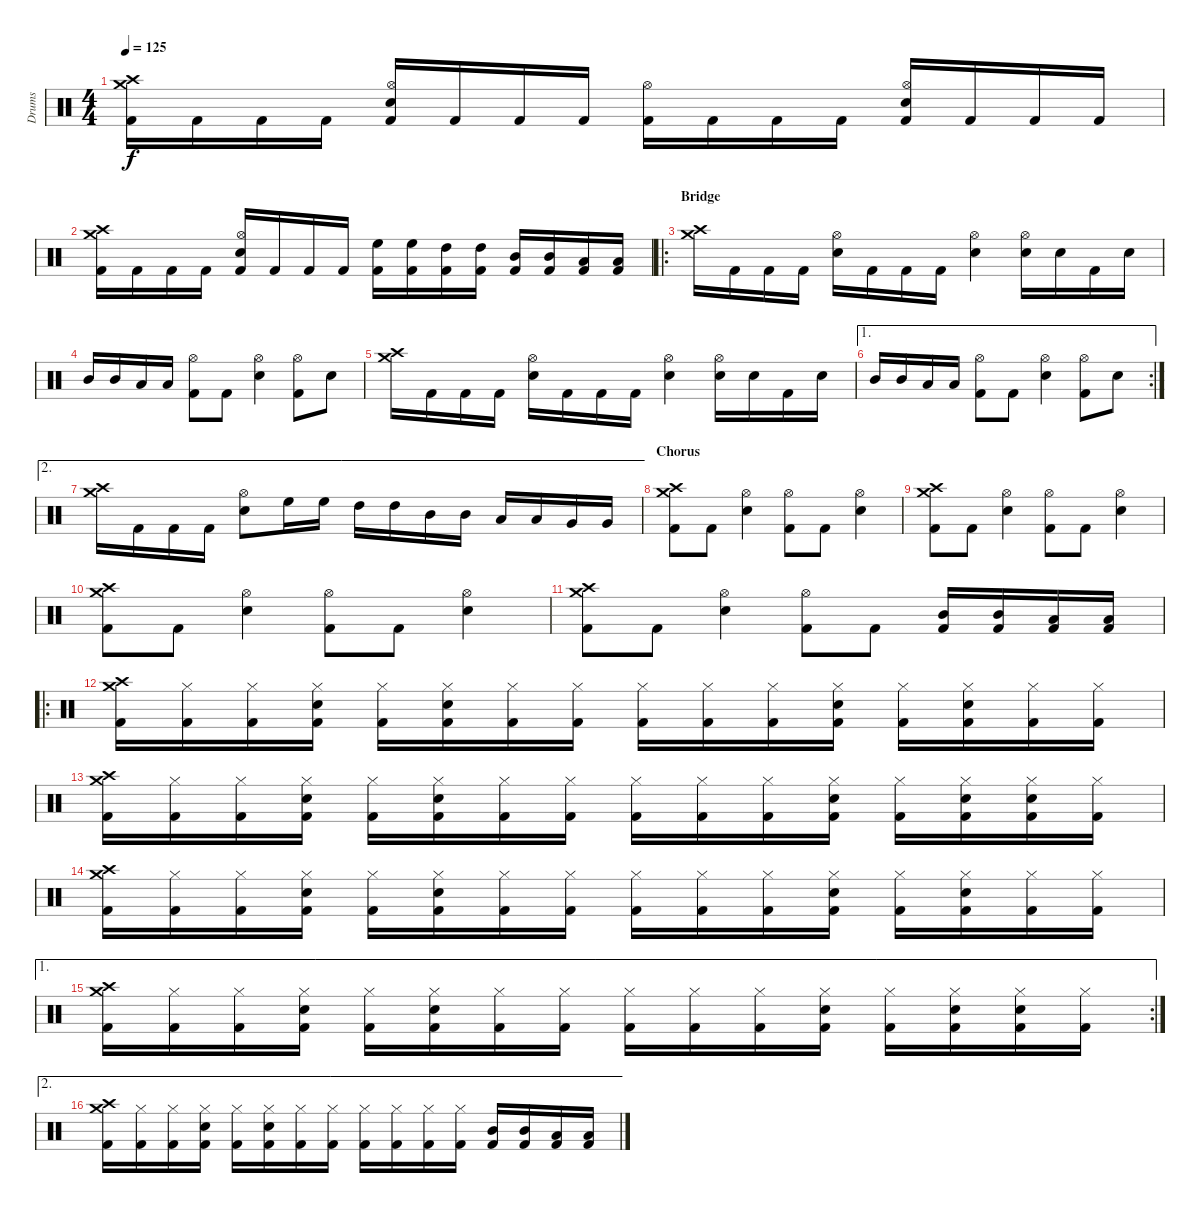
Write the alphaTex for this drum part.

\track ("Drums" "Drums") {instrument percussion}
\staff {score}
\articulation defaults
\ts (4 4)
\tempo 125
\clef neutral
\ks c
("Crash medium (hit)" "Crash high (hit)" "Kick (hit) 2").16{dy f} "Kick (hit) 2".16 "Kick (hit) 2".16 "Kick (hit) 2".16 ("Hi-Hat (open)" "Snare (hit) 2" "Kick (hit) 2").16 "Kick (hit) 2".16 "Kick (hit) 2".16 "Kick (hit) 2".16 ("Hi-Hat (open)" "Kick (hit) 2").16 "Kick (hit) 2".16 "Kick (hit) 2".16 "Kick (hit) 2".16 ("Hi-Hat (open)" "Snare (hit) 2" "Kick (hit) 2").16 "Kick (hit) 2".16 "Kick (hit) 2".16 "Kick (hit) 2".16 |
("Crash medium (hit)" "Crash high (hit)" "Kick (hit) 2").16 "Kick (hit) 2".16 "Kick (hit) 2".16 "Kick (hit) 2".16 ("Hi-Hat (open)" "Snare (hit) 2" "Kick (hit) 2").16 "Kick (hit) 2".16 "Kick (hit) 2".16 "Kick (hit) 2".16 ("High Floor Tom (hit)" "Kick (hit) 2").16 ("High Floor Tom (hit)" "Kick (hit) 2").16 ("High Tom (hit)" "Kick (hit) 2").16 ("High Tom (hit)" "Kick (hit) 2").16 ("Mid Tom (hit)" "Kick (hit) 2").16 ("Mid Tom (hit)" "Kick (hit) 2").16 ("Low Tom (hit)" "Kick (hit) 2").16 ("Low Tom (hit)" "Kick (hit) 2").16 |
\ro
\section ("" "Bridge")
("Crash medium (hit)" "Crash high (hit)").16 "Kick (hit) 2".16 "Kick (hit) 2".16 "Kick (hit) 2".16 ("Hi-Hat (open)" "Snare (hit) 2").16 "Kick (hit) 2".16 "Kick (hit) 2".16 "Kick (hit) 2".16 ("Hi-Hat (open)" "Snare (hit) 2").4 ("Hi-Hat (open)" "Snare (hit) 2").16 "Snare (hit) 2".16 "Kick (hit) 2".16 "Snare (hit) 2".16 |
"Mid Tom (hit)".16 "Mid Tom (hit)".16 "Low Tom (hit)".16 "Low Tom (hit)".16 ("Hi-Hat (open)" "Kick (hit) 2").8 "Kick (hit) 2".8 ("Hi-Hat (open)" "Snare (hit) 2").4 ("Hi-Hat (open)" "Kick (hit) 2").8 "Snare (hit) 2".8 |
("Crash medium (hit)" "Crash high (hit)").16 "Kick (hit) 2".16 "Kick (hit) 2".16 "Kick (hit) 2".16 ("Hi-Hat (open)" "Snare (hit) 2").16 "Kick (hit) 2".16 "Kick (hit) 2".16 "Kick (hit) 2".16 ("Hi-Hat (open)" "Snare (hit) 2").4 ("Hi-Hat (open)" "Snare (hit) 2").16 "Snare (hit) 2".16 "Kick (hit) 2".16 "Snare (hit) 2".16 |
\ae 1
\rc 2 "Mid Tom (hit)".16 "Mid Tom (hit)".16 "Low Tom (hit)".16 "Low Tom (hit)".16
("Hi-Hat (open)" "Kick (hit) 2").8 "Kick (hit) 2".8 ("Hi-Hat (open)" "Snare (hit) 2").4 ("Hi-Hat (open)" "Kick (hit) 2").8 "Snare (hit) 2".8 |
\ae 2
("Crash medium (hit)" "Crash high (hit)").16 "Kick (hit) 2".16 "Kick (hit) 2".16 "Kick (hit) 2".16 ("Hi-Hat (open)" "Snare (hit) 2").8 "High Floor Tom (hit)".16 "High Floor Tom (hit)".16 "High Tom (hit)".16 "High Tom (hit)".16 "Mid Tom (hit)".16 "Mid Tom (hit)".16 "Low Tom (hit)".16 "Low Tom (hit)".16 "Very Low Tom (hit)".16 "Very Low Tom (hit)".16 |
\section ("" "Chorus")
("Crash medium (hit)" "Crash high (hit)" "Kick (hit) 2").8 "Kick (hit) 2".8 ("Hi-Hat (open)" "Snare (hit) 2").4 ("Hi-Hat (open)" "Kick (hit) 2").8 "Kick (hit) 2".8 ("Hi-Hat (open)" "Snare (hit) 2").4 |
("Crash medium (hit)" "Crash high (hit)" "Kick (hit) 2").8 "Kick (hit) 2".8 ("Hi-Hat (open)" "Snare (hit) 2").4 ("Hi-Hat (open)" "Kick (hit) 2").8 "Kick (hit) 2".8 ("Hi-Hat (open)" "Snare (hit) 2").4 |
("Crash medium (hit)" "Crash high (hit)" "Kick (hit) 2").8 "Kick (hit) 2".8 ("Hi-Hat (open)" "Snare (hit) 2").4 ("Hi-Hat (open)" "Kick (hit) 2").8 "Kick (hit) 2".8 ("Hi-Hat (open)" "Snare (hit) 2").4 |
("Crash medium (hit)" "Crash high (hit)" "Kick (hit) 2").8 "Kick (hit) 2".8 ("Hi-Hat (open)" "Snare (hit) 2").4 ("Hi-Hat (open)" "Kick (hit) 2").8 "Kick (hit) 2".8 ("Mid Tom (hit)" "Kick (hit) 2").16 ("Mid Tom (hit)" "Kick (hit) 2").16 ("Low Tom (hit)" "Kick (hit) 2").16 ("Low Tom (hit)" "Kick (hit) 2").16 |
\ro
("Crash medium (hit)" "Crash high (hit)" "Kick (hit) 2").16 ("Hi-Hat (closed)" "Kick (hit) 2").16 ("Hi-Hat (closed)" "Kick (hit) 2").16 ("Hi-Hat (closed)" "Snare (hit) 2" "Kick (hit) 2").16 ("Hi-Hat (closed)" "Kick (hit) 2").16 ("Hi-Hat (closed)" "Snare (hit) 2" "Kick (hit) 2").16 ("Hi-Hat (closed)" "Kick (hit) 2").16 ("Hi-Hat (closed)" "Kick (hit) 2").16 ("Hi-Hat (closed)" "Kick (hit) 2").16 ("Hi-Hat (closed)" "Kick (hit) 2").16 ("Hi-Hat (closed)" "Kick (hit) 2").16 ("Hi-Hat (closed)" "Snare (hit) 2" "Kick (hit) 2").16 ("Hi-Hat (closed)" "Kick (hit) 2").16 ("Hi-Hat (closed)" "Snare (hit) 2" "Kick (hit) 2").16 ("Hi-Hat (closed)" "Kick (hit) 2").16 ("Hi-Hat (closed)" "Kick (hit) 2").16 |
("Crash medium (hit)" "Crash high (hit)" "Kick (hit) 2").16 ("Hi-Hat (closed)" "Kick (hit) 2").16 ("Hi-Hat (closed)" "Kick (hit) 2").16 ("Hi-Hat (closed)" "Snare (hit) 2" "Kick (hit) 2").16 ("Hi-Hat (closed)" "Kick (hit) 2").16 ("Hi-Hat (closed)" "Snare (hit) 2" "Kick (hit) 2").16 ("Hi-Hat (closed)" "Kick (hit) 2").16 ("Hi-Hat (closed)" "Kick (hit) 2").16 ("Hi-Hat (closed)" "Kick (hit) 2").16 ("Hi-Hat (closed)" "Kick (hit) 2").16 ("Hi-Hat (closed)" "Kick (hit) 2").16 ("Hi-Hat (closed)" "Snare (hit) 2" "Kick (hit) 2").16 ("Hi-Hat (closed)" "Kick (hit) 2").16 ("Hi-Hat (closed)" "Snare (hit) 2" "Kick (hit) 2").16 ("Hi-Hat (closed)" "Snare (hit) 2" "Kick (hit) 2").16 ("Hi-Hat (closed)" "Kick (hit) 2").16 |
("Crash medium (hit)" "Crash high (hit)" "Kick (hit) 2").16 ("Hi-Hat (closed)" "Kick (hit) 2").16 ("Hi-Hat (closed)" "Kick (hit) 2").16 ("Hi-Hat (closed)" "Snare (hit) 2" "Kick (hit) 2").16 ("Hi-Hat (closed)" "Kick (hit) 2").16 ("Hi-Hat (closed)" "Snare (hit) 2" "Kick (hit) 2").16 ("Hi-Hat (closed)" "Kick (hit) 2").16 ("Hi-Hat (closed)" "Kick (hit) 2").16 ("Hi-Hat (closed)" "Kick (hit) 2").16 ("Hi-Hat (closed)" "Kick (hit) 2").16 ("Hi-Hat (closed)" "Kick (hit) 2").16 ("Hi-Hat (closed)" "Snare (hit) 2" "Kick (hit) 2").16 ("Hi-Hat (closed)" "Kick (hit) 2").16 ("Hi-Hat (closed)" "Snare (hit) 2" "Kick (hit) 2").16 ("Hi-Hat (closed)" "Kick (hit) 2").16 ("Hi-Hat (closed)" "Kick (hit) 2").16 |
\ae 1
\rc 2
("Crash medium (hit)" "Crash high (hit)" "Kick (hit) 2").16 ("Hi-Hat (closed)" "Kick (hit) 2").16 ("Hi-Hat (closed)" "Kick (hit) 2").16 ("Hi-Hat (closed)" "Snare (hit) 2" "Kick (hit) 2").16 ("Hi-Hat (closed)" "Kick (hit) 2").16 ("Hi-Hat (closed)" "Snare (hit) 2" "Kick (hit) 2").16 ("Hi-Hat (closed)" "Kick (hit) 2").16 ("Hi-Hat (closed)" "Kick (hit) 2").16 ("Hi-Hat (closed)" "Kick (hit) 2").16 ("Hi-Hat (closed)" "Kick (hit) 2").16 ("Hi-Hat (closed)" "Kick (hit) 2").16 ("Hi-Hat (closed)" "Snare (hit) 2" "Kick (hit) 2").16 ("Hi-Hat (closed)" "Kick (hit) 2").16 ("Hi-Hat (closed)" "Snare (hit) 2" "Kick (hit) 2").16 ("Hi-Hat (closed)" "Snare (hit) 2" "Kick (hit) 2").16 ("Hi-Hat (closed)" "Kick (hit) 2").16 |
\ae 2
("Crash medium (hit)" "Crash high (hit)" "Kick (hit) 2").16 ("Hi-Hat (closed)" "Kick (hit) 2").16 ("Hi-Hat (closed)" "Kick (hit) 2").16 ("Hi-Hat (closed)" "Snare (hit) 2" "Kick (hit) 2").16 ("Hi-Hat (closed)" "Kick (hit) 2").16 ("Hi-Hat (closed)" "Snare (hit) 2" "Kick (hit) 2").16 ("Hi-Hat (closed)" "Kick (hit) 2").16 ("Hi-Hat (closed)" "Kick (hit) 2").16 ("Hi-Hat (closed)" "Kick (hit) 2").16 ("Hi-Hat (closed)" "Kick (hit) 2").16 ("Hi-Hat (closed)" "Kick (hit) 2").16 ("Hi-Hat (closed)" "Kick (hit) 2").16 ("Mid Tom (hit)" "Kick (hit) 2").16 ("Mid Tom (hit)" "Kick (hit) 2").16 ("Low Tom (hit)" "Kick (hit) 2").16 ("Low Tom (hit)" "Kick (hit) 2").16
